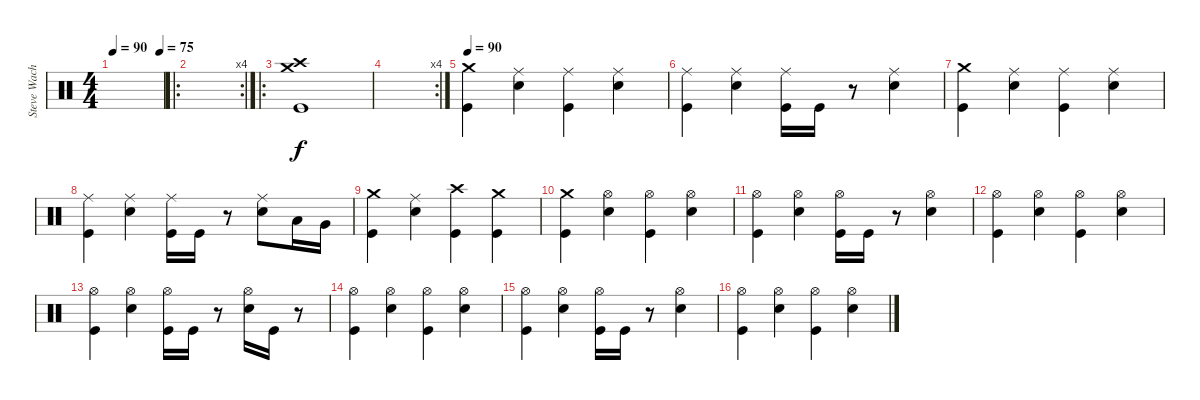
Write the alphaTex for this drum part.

\track ("Steve Wacholz" "Steve Wach") {instrument percussion}
\staff {score}
\articulation defaults
\ts (4 4)
\tempo 90
\tempo (75 0.9375)
\tempo 90
\clef neutral
\ks c
|
\ro
\rc 4
|
\ro
("Crash high (hit)" "Crash medium (hit)" "Kick (hit)").1 |
\rc 4
|
\tempo 90
("Crash medium (hit)" "Kick (hit)").4 ("Ride (middle)" "Electric Snare (hit)").4 ("Ride (middle)" "Kick (hit)").4 ("Ride (middle)" "Electric Snare (hit)").4 |
("Ride (middle)" "Kick (hit)").4 ("Ride (middle)" "Electric Snare (hit)").4 ("Ride (middle)" "Kick (hit)").16 "Kick (hit)".16 r.8 ("Ride (middle)" "Electric Snare (hit)").4 |
("Crash medium (hit)" "Kick (hit)").4 ("Ride (middle)" "Electric Snare (hit)").4 ("Ride (middle)" "Kick (hit)").4 ("Ride (middle)" "Electric Snare (hit)").4 |
("Ride (middle)" "Kick (hit)").4 ("Ride (middle)" "Electric Snare (hit)").4 ("Ride (middle)" "Kick (hit)").16 "Kick (hit)".16 r.8 ("Ride (middle)" "Electric Snare (hit)").8 "Low Tom (hit)".16 "Very Low Tom (hit)".16 |
("Crash medium (hit)" "Kick (hit)").4 ("Ride (middle)" "Electric Snare (hit)").4 ("Crash high (hit)" "Kick (hit)").4 ("Crash medium (hit)" "Kick (hit)").4 |
("Crash medium (hit)" "Kick (hit)").4 ("Hi-Hat (open)" "Electric Snare (hit)").4 ("Hi-Hat (open)" "Kick (hit)").4 ("Hi-Hat (open)" "Electric Snare (hit)").4 |
("Hi-Hat (open)" "Kick (hit)").4 ("Hi-Hat (open)" "Electric Snare (hit)").4 ("Hi-Hat (open)" "Kick (hit)").16 "Kick (hit)".16 r.8 ("Hi-Hat (open)" "Electric Snare (hit)").4 |
("Hi-Hat (open)" "Kick (hit)").4 ("Hi-Hat (open)" "Electric Snare (hit)").4 ("Hi-Hat (open)" "Kick (hit)").4 ("Hi-Hat (open)" "Electric Snare (hit)").4 |
("Hi-Hat (open)" "Kick (hit)").4 ("Hi-Hat (open)" "Electric Snare (hit)").4 ("Hi-Hat (open)" "Kick (hit)").16 "Kick (hit)".16 r.8 ("Hi-Hat (open)" "Electric Snare (hit)").16 "Kick (hit)".16 r.8 |
("Hi-Hat (open)" "Kick (hit)").4 ("Hi-Hat (open)" "Electric Snare (hit)").4 ("Hi-Hat (open)" "Kick (hit)").4 ("Hi-Hat (open)" "Electric Snare (hit)").4 |
("Hi-Hat (open)" "Kick (hit)").4 ("Hi-Hat (open)" "Electric Snare (hit)").4 ("Hi-Hat (open)" "Kick (hit)").16 "Kick (hit)".16 r.8 ("Hi-Hat (open)" "Electric Snare (hit)").4 |
("Hi-Hat (open)" "Kick (hit)").4 ("Hi-Hat (open)" "Electric Snare (hit)").4 ("Hi-Hat (open)" "Kick (hit)").4 ("Hi-Hat (open)" "Electric Snare (hit)").4
